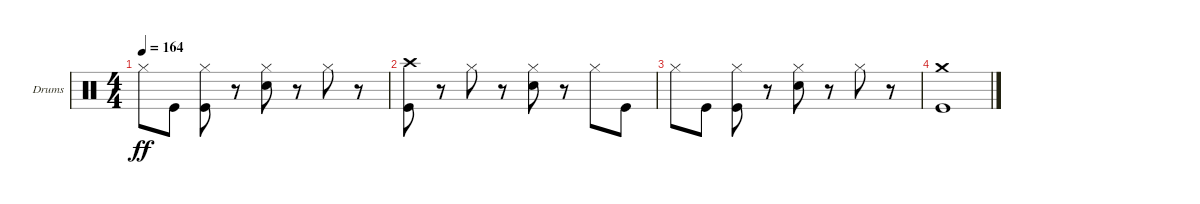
\defaultSystemsLayout 4
\bracketExtendMode groupsimilarinstruments
\firstSystemTrackNameOrientation horizontal
\otherSystemsTrackNameOrientation horizontal
\track ("Drumkit" "Drums") {instrument percussion}
\staff {score}
\articulation defaults
\ts (4 4)
\tempo 164
\clef neutral
\ks c "Hi-Hat (closed)".8{dy ff} "Kick (hit)".8
("Hi-Hat (closed)" "Kick (hit)").8 r.8 ("Hi-Hat (closed)" "Snare (hit) 2").8 r.8 "Hi-Hat (closed)".8 r.8 |
("Kick (hit)" "Crash high (hit)").8 r.8 "Hi-Hat (closed)".8 r.8 ("Hi-Hat (closed)" "Snare (hit) 2").8 r.8 "Hi-Hat (closed)".8 "Kick (hit)".8 |
"Hi-Hat (closed)".8 "Kick (hit)".8 ("Hi-Hat (closed)" "Kick (hit)").8 r.8 ("Hi-Hat (closed)" "Snare (hit) 2").8 r.8 "Hi-Hat (closed)".8 r.8 |
("Kick (hit)" "Crash medium (hit)").1
